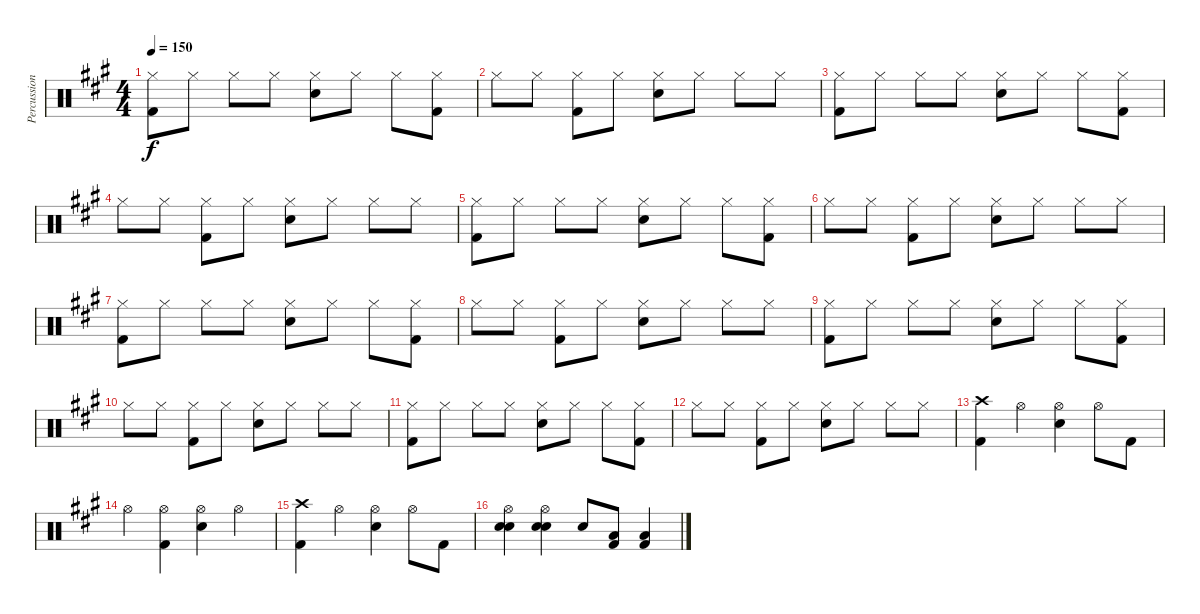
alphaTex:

\track ("Percussion" "Percussion") {instrument percussion}
\staff {score}
\articulation defaults
\ts (4 4)
\tempo 150
\clef neutral
\ks a
("Kick (hit) 2" "Hi-Hat (closed)").8{dy f} "Hi-Hat (closed)".8 "Hi-Hat (closed)".8 "Hi-Hat (closed)".8 ("Snare (hit) 2" "Hi-Hat (closed)").8 "Hi-Hat (closed)".8 "Hi-Hat (closed)".8 ("Kick (hit) 2" "Hi-Hat (closed)").8 |
"Hi-Hat (closed)".8 "Hi-Hat (closed)".8 ("Kick (hit) 2" "Hi-Hat (closed)").8 "Hi-Hat (closed)".8 ("Snare (hit) 2" "Hi-Hat (closed)").8 "Hi-Hat (closed)".8 "Hi-Hat (closed)".8 "Hi-Hat (closed)".8 |
("Kick (hit) 2" "Hi-Hat (closed)").8 "Hi-Hat (closed)".8 "Hi-Hat (closed)".8 "Hi-Hat (closed)".8 ("Snare (hit) 2" "Hi-Hat (closed)").8 "Hi-Hat (closed)".8 "Hi-Hat (closed)".8 ("Kick (hit) 2" "Hi-Hat (closed)").8 |
"Hi-Hat (closed)".8 "Hi-Hat (closed)".8 ("Kick (hit) 2" "Hi-Hat (closed)").8 "Hi-Hat (closed)".8 ("Snare (hit) 2" "Hi-Hat (closed)").8 "Hi-Hat (closed)".8 "Hi-Hat (closed)".8 "Hi-Hat (closed)".8 |
("Kick (hit) 2" "Hi-Hat (closed)").8 "Hi-Hat (closed)".8 "Hi-Hat (closed)".8 "Hi-Hat (closed)".8 ("Snare (hit) 2" "Hi-Hat (closed)").8 "Hi-Hat (closed)".8 "Hi-Hat (closed)".8 ("Kick (hit) 2" "Hi-Hat (closed)").8 |
"Hi-Hat (closed)".8 "Hi-Hat (closed)".8 ("Kick (hit) 2" "Hi-Hat (closed)").8 "Hi-Hat (closed)".8 ("Snare (hit) 2" "Hi-Hat (closed)").8 "Hi-Hat (closed)".8 "Hi-Hat (closed)".8 "Hi-Hat (closed)".8 |
("Kick (hit) 2" "Hi-Hat (closed)").8 "Hi-Hat (closed)".8 "Hi-Hat (closed)".8 "Hi-Hat (closed)".8 ("Snare (hit) 2" "Hi-Hat (closed)").8 "Hi-Hat (closed)".8 "Hi-Hat (closed)".8 ("Kick (hit) 2" "Hi-Hat (closed)").8 |
"Hi-Hat (closed)".8 "Hi-Hat (closed)".8 ("Kick (hit) 2" "Hi-Hat (closed)").8 "Hi-Hat (closed)".8 ("Snare (hit) 2" "Hi-Hat (closed)").8 "Hi-Hat (closed)".8 "Hi-Hat (closed)".8 "Hi-Hat (closed)".8 |
("Kick (hit) 2" "Hi-Hat (closed)").8 "Hi-Hat (closed)".8 "Hi-Hat (closed)".8 "Hi-Hat (closed)".8 ("Snare (hit) 2" "Hi-Hat (closed)").8 "Hi-Hat (closed)".8 "Hi-Hat (closed)".8 ("Kick (hit) 2" "Hi-Hat (closed)").8 |
"Hi-Hat (closed)".8 "Hi-Hat (closed)".8 ("Kick (hit) 2" "Hi-Hat (closed)").8 "Hi-Hat (closed)".8 ("Snare (hit) 2" "Hi-Hat (closed)").8 "Hi-Hat (closed)".8 "Hi-Hat (closed)".8 "Hi-Hat (closed)".8 |
("Kick (hit) 2" "Hi-Hat (closed)").8 "Hi-Hat (closed)".8 "Hi-Hat (closed)".8 "Hi-Hat (closed)".8 ("Snare (hit) 2" "Hi-Hat (closed)").8 "Hi-Hat (closed)".8 "Hi-Hat (closed)".8 ("Kick (hit) 2" "Hi-Hat (closed)").8 |
"Hi-Hat (closed)".8 "Hi-Hat (closed)".8 ("Kick (hit) 2" "Hi-Hat (closed)").8 "Hi-Hat (closed)".8 ("Snare (hit) 2" "Hi-Hat (closed)").8 "Hi-Hat (closed)".8 "Hi-Hat (closed)".8 "Hi-Hat (closed)".8 |
("Kick (hit) 2" "Crash high (hit)").4 "Hi-Hat (open)".4 ("Snare (hit) 2" "Hi-Hat (open)").4 "Hi-Hat (open)".8 "Kick (hit) 2".8 |
"Hi-Hat (open)".4 ("Kick (hit) 2" "Hi-Hat (open)").4 ("Snare (hit) 2" "Hi-Hat (open)").4 "Hi-Hat (open)".4 |
("Kick (hit) 2" "Crash high (hit)").4 "Hi-Hat (open)".4 ("Snare (hit) 2" "Hi-Hat (open)").4 "Hi-Hat (open)".8 "Kick (hit) 2".8 |
("Snare (hit) 2" "Hi-Hat (open)" "Snare (hit) 2").4 ("Snare (hit) 2" "Hi-Hat (open)" "Snare (hit) 2").4 "Snare (hit) 2".8 ("Low Tom (hit)" "Kick (hit) 2").8 ("Low Tom (hit)" "Kick (hit) 2").4
